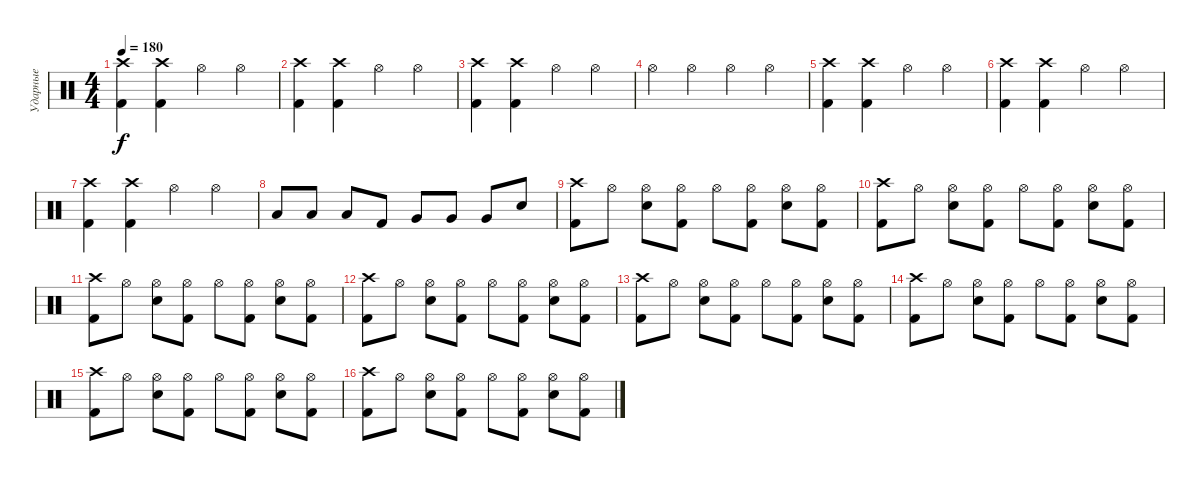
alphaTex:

\track ("Ударные" "Ударные") {instrument percussion}
\staff {score}
\articulation defaults
\ts (4 4)
\tempo 180
\clef neutral
\ks c
("Crash high (hit)" "Kick (hit) 2").4{dy f} ("Crash high (hit)" "Kick (hit) 2").4 "Hi-Hat (open)".4 "Hi-Hat (open)".4 |
("Crash high (hit)" "Kick (hit) 2").4 ("Crash high (hit)" "Kick (hit) 2").4 "Hi-Hat (open)".4 "Hi-Hat (open)".4 |
("Crash high (hit)" "Kick (hit) 2").4 ("Crash high (hit)" "Kick (hit) 2").4 "Hi-Hat (open)".4 "Hi-Hat (open)".4 |
"Hi-Hat (open)".4 "Hi-Hat (open)".4 "Hi-Hat (open)".4 "Hi-Hat (open)".4 |
("Crash high (hit)" "Kick (hit) 2").4 ("Crash high (hit)" "Kick (hit) 2").4 "Hi-Hat (open)".4 "Hi-Hat (open)".4 |
("Crash high (hit)" "Kick (hit) 2").4 ("Crash high (hit)" "Kick (hit) 2").4 "Hi-Hat (open)".4 "Hi-Hat (open)".4 |
("Crash high (hit)" "Kick (hit) 2").4 ("Crash high (hit)" "Kick (hit) 2").4 "Hi-Hat (open)".4 "Hi-Hat (open)".4 |
"Low Tom (hit)".8 "Low Tom (hit)".8 "Low Tom (hit)".8 "Kick (hit) 2".8 "Very Low Tom (hit)".8 "Very Low Tom (hit)".8 "Very Low Tom (hit)".8 "Electric Snare (hit)".8 |
("Crash high (hit)" "Kick (hit) 2").8 "Hi-Hat (open)".8 ("Hi-Hat (open)" "Electric Snare (hit)").8 ("Hi-Hat (open)" "Kick (hit) 2").8 "Hi-Hat (open)".8 ("Hi-Hat (open)" "Kick (hit) 2").8 ("Hi-Hat (open)" "Electric Snare (hit)").8 ("Hi-Hat (open)" "Kick (hit) 2").8 |
("Crash high (hit)" "Kick (hit) 2").8 "Hi-Hat (open)".8 ("Hi-Hat (open)" "Electric Snare (hit)").8 ("Hi-Hat (open)" "Kick (hit) 2").8 "Hi-Hat (open)".8 ("Hi-Hat (open)" "Kick (hit) 2").8 ("Hi-Hat (open)" "Electric Snare (hit)").8 ("Hi-Hat (open)" "Kick (hit) 2").8 |
("Crash high (hit)" "Kick (hit) 2").8 "Hi-Hat (open)".8 ("Hi-Hat (open)" "Electric Snare (hit)").8 ("Hi-Hat (open)" "Kick (hit) 2").8 "Hi-Hat (open)".8 ("Hi-Hat (open)" "Kick (hit) 2").8 ("Hi-Hat (open)" "Electric Snare (hit)").8 ("Hi-Hat (open)" "Kick (hit) 2").8 |
("Crash high (hit)" "Kick (hit) 2").8 "Hi-Hat (open)".8 ("Hi-Hat (open)" "Electric Snare (hit)").8 ("Hi-Hat (open)" "Kick (hit) 2").8 "Hi-Hat (open)".8 ("Hi-Hat (open)" "Kick (hit) 2").8 ("Hi-Hat (open)" "Electric Snare (hit)").8 ("Hi-Hat (open)" "Kick (hit) 2").8 |
("Crash high (hit)" "Kick (hit) 2").8 "Hi-Hat (open)".8 ("Hi-Hat (open)" "Electric Snare (hit)").8 ("Hi-Hat (open)" "Kick (hit) 2").8 "Hi-Hat (open)".8 ("Hi-Hat (open)" "Kick (hit) 2").8 ("Hi-Hat (open)" "Electric Snare (hit)").8 ("Hi-Hat (open)" "Kick (hit) 2").8 |
("Crash high (hit)" "Kick (hit) 2").8 "Hi-Hat (open)".8 ("Hi-Hat (open)" "Electric Snare (hit)").8 ("Hi-Hat (open)" "Kick (hit) 2").8 "Hi-Hat (open)".8 ("Hi-Hat (open)" "Kick (hit) 2").8 ("Hi-Hat (open)" "Electric Snare (hit)").8 ("Hi-Hat (open)" "Kick (hit) 2").8 |
("Crash high (hit)" "Kick (hit) 2").8 "Hi-Hat (open)".8 ("Hi-Hat (open)" "Electric Snare (hit)").8 ("Hi-Hat (open)" "Kick (hit) 2").8 "Hi-Hat (open)".8 ("Hi-Hat (open)" "Kick (hit) 2").8 ("Hi-Hat (open)" "Electric Snare (hit)").8 ("Hi-Hat (open)" "Kick (hit) 2").8 |
("Crash high (hit)" "Kick (hit) 2").8 "Hi-Hat (open)".8 ("Hi-Hat (open)" "Electric Snare (hit)").8 ("Hi-Hat (open)" "Kick (hit) 2").8 "Hi-Hat (open)".8 ("Hi-Hat (open)" "Kick (hit) 2").8 ("Hi-Hat (open)" "Electric Snare (hit)").8 ("Hi-Hat (open)" "Kick (hit) 2").8
